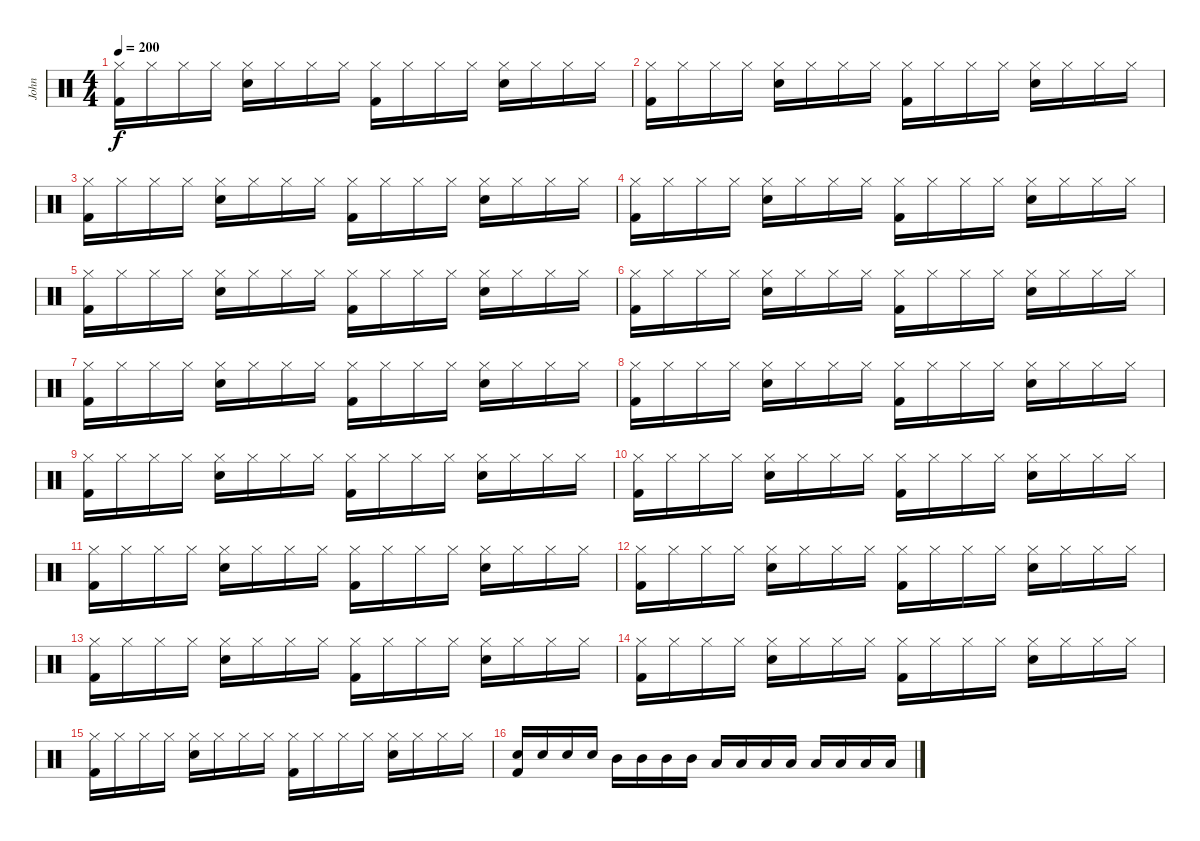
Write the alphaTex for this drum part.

\track ("John" "John") {instrument percussion}
\staff {score}
\articulation defaults
\ts (4 4)
\tempo 200
\clef neutral
\ks c
("Hi-Hat (closed)" "Kick (hit) 2").16{dy f} "Hi-Hat (closed)".16 "Hi-Hat (closed)".16 "Hi-Hat (closed)".16 ("Hi-Hat (closed)" "Electric Snare (hit)").16 "Hi-Hat (closed)".16 "Hi-Hat (closed)".16 "Hi-Hat (closed)".16 ("Hi-Hat (closed)" "Kick (hit) 2").16 "Hi-Hat (closed)".16 "Hi-Hat (closed)".16 "Hi-Hat (closed)".16 ("Hi-Hat (closed)" "Electric Snare (hit)").16 "Hi-Hat (closed)".16 "Hi-Hat (closed)".16 "Hi-Hat (closed)".16 |
("Hi-Hat (closed)" "Kick (hit) 2").16 "Hi-Hat (closed)".16 "Hi-Hat (closed)".16 "Hi-Hat (closed)".16 ("Hi-Hat (closed)" "Electric Snare (hit)").16 "Hi-Hat (closed)".16 "Hi-Hat (closed)".16 "Hi-Hat (closed)".16 ("Hi-Hat (closed)" "Kick (hit) 2").16 "Hi-Hat (closed)".16 "Hi-Hat (closed)".16 "Hi-Hat (closed)".16 ("Hi-Hat (closed)" "Electric Snare (hit)").16 "Hi-Hat (closed)".16 "Hi-Hat (closed)".16 "Hi-Hat (closed)".16 |
("Hi-Hat (closed)" "Kick (hit) 2").16 "Hi-Hat (closed)".16 "Hi-Hat (closed)".16 "Hi-Hat (closed)".16 ("Hi-Hat (closed)" "Electric Snare (hit)").16 "Hi-Hat (closed)".16 "Hi-Hat (closed)".16 "Hi-Hat (closed)".16 ("Hi-Hat (closed)" "Kick (hit) 2").16 "Hi-Hat (closed)".16 "Hi-Hat (closed)".16 "Hi-Hat (closed)".16 ("Hi-Hat (closed)" "Electric Snare (hit)").16 "Hi-Hat (closed)".16 "Hi-Hat (closed)".16 "Hi-Hat (closed)".16 |
("Hi-Hat (closed)" "Kick (hit) 2").16 "Hi-Hat (closed)".16 "Hi-Hat (closed)".16 "Hi-Hat (closed)".16 ("Hi-Hat (closed)" "Electric Snare (hit)").16 "Hi-Hat (closed)".16 "Hi-Hat (closed)".16 "Hi-Hat (closed)".16 ("Hi-Hat (closed)" "Kick (hit) 2").16 "Hi-Hat (closed)".16 "Hi-Hat (closed)".16 "Hi-Hat (closed)".16 ("Hi-Hat (closed)" "Electric Snare (hit)").16 "Hi-Hat (closed)".16 "Hi-Hat (closed)".16 "Hi-Hat (closed)".16 |
("Hi-Hat (closed)" "Kick (hit) 2").16 "Hi-Hat (closed)".16 "Hi-Hat (closed)".16 "Hi-Hat (closed)".16 ("Hi-Hat (closed)" "Electric Snare (hit)").16 "Hi-Hat (closed)".16 "Hi-Hat (closed)".16 "Hi-Hat (closed)".16 ("Hi-Hat (closed)" "Kick (hit) 2").16 "Hi-Hat (closed)".16 "Hi-Hat (closed)".16 "Hi-Hat (closed)".16 ("Hi-Hat (closed)" "Electric Snare (hit)").16 "Hi-Hat (closed)".16 "Hi-Hat (closed)".16 "Hi-Hat (closed)".16 |
("Hi-Hat (closed)" "Kick (hit) 2").16 "Hi-Hat (closed)".16 "Hi-Hat (closed)".16 "Hi-Hat (closed)".16 ("Hi-Hat (closed)" "Electric Snare (hit)").16 "Hi-Hat (closed)".16 "Hi-Hat (closed)".16 "Hi-Hat (closed)".16 ("Hi-Hat (closed)" "Kick (hit) 2").16 "Hi-Hat (closed)".16 "Hi-Hat (closed)".16 "Hi-Hat (closed)".16 ("Hi-Hat (closed)" "Electric Snare (hit)").16 "Hi-Hat (closed)".16 "Hi-Hat (closed)".16 "Hi-Hat (closed)".16 |
("Hi-Hat (closed)" "Kick (hit) 2").16 "Hi-Hat (closed)".16 "Hi-Hat (closed)".16 "Hi-Hat (closed)".16 ("Hi-Hat (closed)" "Electric Snare (hit)").16 "Hi-Hat (closed)".16 "Hi-Hat (closed)".16 "Hi-Hat (closed)".16 ("Hi-Hat (closed)" "Kick (hit) 2").16 "Hi-Hat (closed)".16 "Hi-Hat (closed)".16 "Hi-Hat (closed)".16 ("Hi-Hat (closed)" "Electric Snare (hit)").16 "Hi-Hat (closed)".16 "Hi-Hat (closed)".16 "Hi-Hat (closed)".16 |
("Hi-Hat (closed)" "Kick (hit) 2").16 "Hi-Hat (closed)".16 "Hi-Hat (closed)".16 "Hi-Hat (closed)".16 ("Hi-Hat (closed)" "Electric Snare (hit)").16 "Hi-Hat (closed)".16 "Hi-Hat (closed)".16 "Hi-Hat (closed)".16 ("Hi-Hat (closed)" "Kick (hit) 2").16 "Hi-Hat (closed)".16 "Hi-Hat (closed)".16 "Hi-Hat (closed)".16 ("Hi-Hat (closed)" "Electric Snare (hit)").16 "Hi-Hat (closed)".16 "Hi-Hat (closed)".16 "Hi-Hat (closed)".16 |
("Hi-Hat (closed)" "Kick (hit) 2").16 "Hi-Hat (closed)".16 "Hi-Hat (closed)".16 "Hi-Hat (closed)".16 ("Hi-Hat (closed)" "Electric Snare (hit)").16 "Hi-Hat (closed)".16 "Hi-Hat (closed)".16 "Hi-Hat (closed)".16 ("Hi-Hat (closed)" "Kick (hit) 2").16 "Hi-Hat (closed)".16 "Hi-Hat (closed)".16 "Hi-Hat (closed)".16 ("Hi-Hat (closed)" "Electric Snare (hit)").16 "Hi-Hat (closed)".16 "Hi-Hat (closed)".16 "Hi-Hat (closed)".16 |
("Hi-Hat (closed)" "Kick (hit) 2").16 "Hi-Hat (closed)".16 "Hi-Hat (closed)".16 "Hi-Hat (closed)".16 ("Hi-Hat (closed)" "Electric Snare (hit)").16 "Hi-Hat (closed)".16 "Hi-Hat (closed)".16 "Hi-Hat (closed)".16 ("Hi-Hat (closed)" "Kick (hit) 2").16 "Hi-Hat (closed)".16 "Hi-Hat (closed)".16 "Hi-Hat (closed)".16 ("Hi-Hat (closed)" "Electric Snare (hit)").16 "Hi-Hat (closed)".16 "Hi-Hat (closed)".16 "Hi-Hat (closed)".16 |
("Hi-Hat (closed)" "Kick (hit) 2").16 "Hi-Hat (closed)".16 "Hi-Hat (closed)".16 "Hi-Hat (closed)".16 ("Hi-Hat (closed)" "Electric Snare (hit)").16 "Hi-Hat (closed)".16 "Hi-Hat (closed)".16 "Hi-Hat (closed)".16 ("Hi-Hat (closed)" "Kick (hit) 2").16 "Hi-Hat (closed)".16 "Hi-Hat (closed)".16 "Hi-Hat (closed)".16 ("Hi-Hat (closed)" "Electric Snare (hit)").16 "Hi-Hat (closed)".16 "Hi-Hat (closed)".16 "Hi-Hat (closed)".16 |
("Hi-Hat (closed)" "Kick (hit) 2").16 "Hi-Hat (closed)".16 "Hi-Hat (closed)".16 "Hi-Hat (closed)".16 ("Hi-Hat (closed)" "Electric Snare (hit)").16 "Hi-Hat (closed)".16 "Hi-Hat (closed)".16 "Hi-Hat (closed)".16 ("Hi-Hat (closed)" "Kick (hit) 2").16 "Hi-Hat (closed)".16 "Hi-Hat (closed)".16 "Hi-Hat (closed)".16 ("Hi-Hat (closed)" "Electric Snare (hit)").16 "Hi-Hat (closed)".16 "Hi-Hat (closed)".16 "Hi-Hat (closed)".16 |
("Hi-Hat (closed)" "Kick (hit) 2").16 "Hi-Hat (closed)".16 "Hi-Hat (closed)".16 "Hi-Hat (closed)".16 ("Hi-Hat (closed)" "Electric Snare (hit)").16 "Hi-Hat (closed)".16 "Hi-Hat (closed)".16 "Hi-Hat (closed)".16 ("Hi-Hat (closed)" "Kick (hit) 2").16 "Hi-Hat (closed)".16 "Hi-Hat (closed)".16 "Hi-Hat (closed)".16 ("Hi-Hat (closed)" "Electric Snare (hit)").16 "Hi-Hat (closed)".16 "Hi-Hat (closed)".16 "Hi-Hat (closed)".16 |
("Hi-Hat (closed)" "Kick (hit) 2").16 "Hi-Hat (closed)".16 "Hi-Hat (closed)".16 "Hi-Hat (closed)".16 ("Hi-Hat (closed)" "Electric Snare (hit)").16 "Hi-Hat (closed)".16 "Hi-Hat (closed)".16 "Hi-Hat (closed)".16 ("Hi-Hat (closed)" "Kick (hit) 2").16 "Hi-Hat (closed)".16 "Hi-Hat (closed)".16 "Hi-Hat (closed)".16 ("Hi-Hat (closed)" "Electric Snare (hit)").16 "Hi-Hat (closed)".16 "Hi-Hat (closed)".16 "Hi-Hat (closed)".16 |
("Hi-Hat (closed)" "Kick (hit) 2").16 "Hi-Hat (closed)".16 "Hi-Hat (closed)".16 "Hi-Hat (closed)".16 ("Hi-Hat (closed)" "Electric Snare (hit)").16 "Hi-Hat (closed)".16 "Hi-Hat (closed)".16 "Hi-Hat (closed)".16 ("Hi-Hat (closed)" "Kick (hit) 2").16 "Hi-Hat (closed)".16 "Hi-Hat (closed)".16 "Hi-Hat (closed)".16 ("Hi-Hat (closed)" "Electric Snare (hit)").16 "Hi-Hat (closed)".16 "Hi-Hat (closed)".16 "Hi-Hat (closed)".16 |
("Electric Snare (hit)" "Kick (hit) 2").16 "Electric Snare (hit)".16 "Electric Snare (hit)".16 "Electric Snare (hit)".16 "Mid Tom (hit)".16 "Mid Tom (hit)".16 "Mid Tom (hit)".16 "Mid Tom (hit)".16 "Low Tom (hit)".16 "Low Tom (hit)".16 "Low Tom (hit)".16 "Low Tom (hit)".16 "Low Floor Tom (hit)".16 "Low Floor Tom (hit)".16 "Low Floor Tom (hit)".16 "Low Floor Tom (hit)".16
